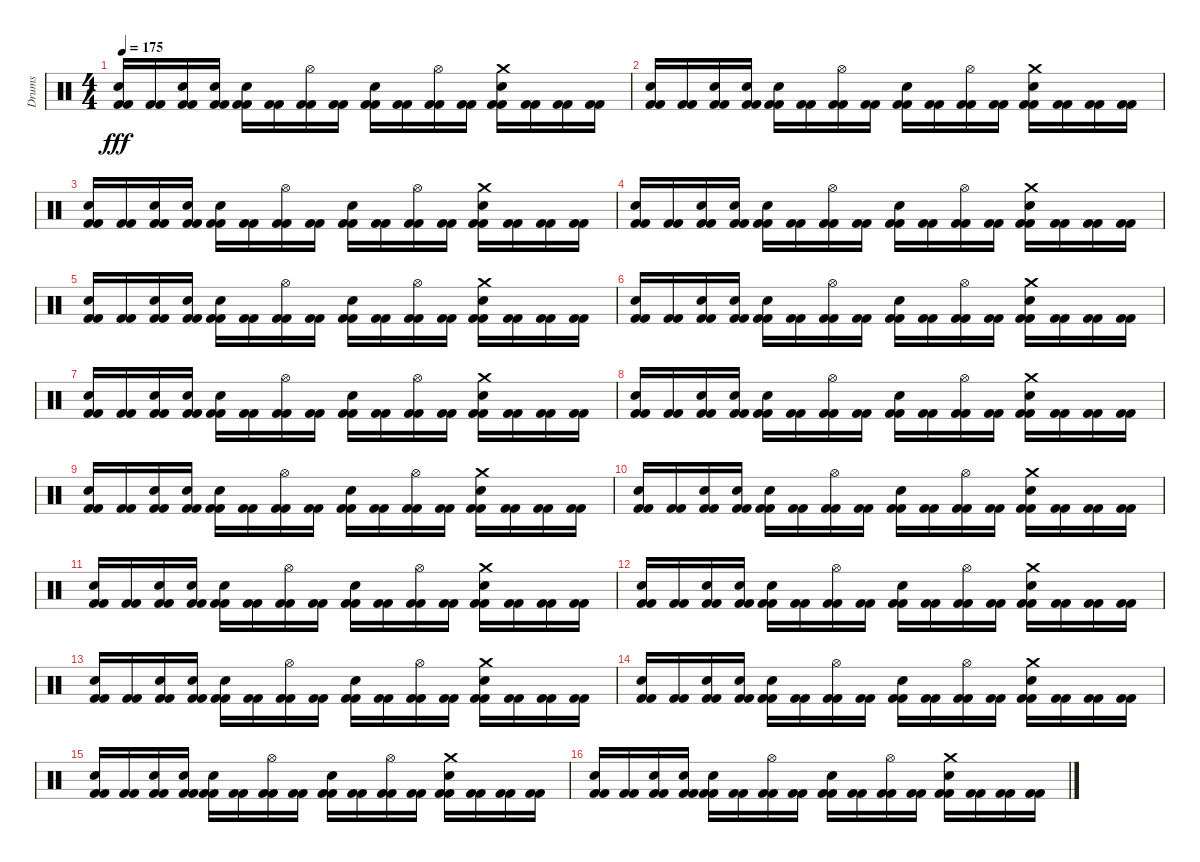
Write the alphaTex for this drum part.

\track ("Drums" "Drums") {instrument percussion}
\staff {score}
\articulation defaults
\ts (4 4)
\tempo 175
\clef neutral
\ks c
("Electric Snare (hit)" "Kick (hit) 2" "Kick (hit) 2").16{dy fff} ("Kick (hit) 2" "Kick (hit) 2").16 ("Electric Snare (hit)" "Kick (hit) 2" "Kick (hit) 2").16 ("Electric Snare (hit)" "Kick (hit) 2" "Kick (hit) 2").16 ("Electric Snare (hit)" "Kick (hit) 2" "Kick (hit) 2").16 ("Kick (hit) 2" "Kick (hit) 2").16 ("Hi-Hat (open)" "Kick (hit) 2" "Kick (hit) 2").16 ("Kick (hit) 2" "Kick (hit) 2").16 ("Electric Snare (hit)" "Kick (hit) 2" "Kick (hit) 2").16 ("Kick (hit) 2" "Kick (hit) 2").16 ("Hi-Hat (open)" "Kick (hit) 2" "Kick (hit) 2").16 ("Kick (hit) 2" "Kick (hit) 2").16 ("Crash medium (hit)" "Electric Snare (hit)" "Kick (hit) 2" "Kick (hit) 2").16 ("Kick (hit) 2" "Kick (hit) 2").16 ("Kick (hit) 2" "Kick (hit) 2").16 ("Kick (hit) 2" "Kick (hit) 2").16 |
("Electric Snare (hit)" "Kick (hit) 2" "Kick (hit) 2").16 ("Kick (hit) 2" "Kick (hit) 2").16 ("Electric Snare (hit)" "Kick (hit) 2" "Kick (hit) 2").16 ("Electric Snare (hit)" "Kick (hit) 2" "Kick (hit) 2").16 ("Electric Snare (hit)" "Kick (hit) 2" "Kick (hit) 2").16 ("Kick (hit) 2" "Kick (hit) 2").16 ("Hi-Hat (open)" "Kick (hit) 2" "Kick (hit) 2").16 ("Kick (hit) 2" "Kick (hit) 2").16 ("Electric Snare (hit)" "Kick (hit) 2" "Kick (hit) 2").16 ("Kick (hit) 2" "Kick (hit) 2").16 ("Hi-Hat (open)" "Kick (hit) 2" "Kick (hit) 2").16 ("Kick (hit) 2" "Kick (hit) 2").16 ("Crash medium (hit)" "Electric Snare (hit)" "Kick (hit) 2" "Kick (hit) 2").16 ("Kick (hit) 2" "Kick (hit) 2").16 ("Kick (hit) 2" "Kick (hit) 2").16 ("Kick (hit) 2" "Kick (hit) 2").16 |
("Electric Snare (hit)" "Kick (hit) 2" "Kick (hit) 2").16 ("Kick (hit) 2" "Kick (hit) 2").16 ("Electric Snare (hit)" "Kick (hit) 2" "Kick (hit) 2").16 ("Electric Snare (hit)" "Kick (hit) 2" "Kick (hit) 2").16 ("Electric Snare (hit)" "Kick (hit) 2" "Kick (hit) 2").16 ("Kick (hit) 2" "Kick (hit) 2").16 ("Hi-Hat (open)" "Kick (hit) 2" "Kick (hit) 2").16 ("Kick (hit) 2" "Kick (hit) 2").16 ("Electric Snare (hit)" "Kick (hit) 2" "Kick (hit) 2").16 ("Kick (hit) 2" "Kick (hit) 2").16 ("Hi-Hat (open)" "Kick (hit) 2" "Kick (hit) 2").16 ("Kick (hit) 2" "Kick (hit) 2").16 ("Crash medium (hit)" "Electric Snare (hit)" "Kick (hit) 2" "Kick (hit) 2").16 ("Kick (hit) 2" "Kick (hit) 2").16 ("Kick (hit) 2" "Kick (hit) 2").16 ("Kick (hit) 2" "Kick (hit) 2").16 |
("Electric Snare (hit)" "Kick (hit) 2" "Kick (hit) 2").16 ("Kick (hit) 2" "Kick (hit) 2").16 ("Electric Snare (hit)" "Kick (hit) 2" "Kick (hit) 2").16 ("Electric Snare (hit)" "Kick (hit) 2" "Kick (hit) 2").16 ("Electric Snare (hit)" "Kick (hit) 2" "Kick (hit) 2").16 ("Kick (hit) 2" "Kick (hit) 2").16 ("Hi-Hat (open)" "Kick (hit) 2" "Kick (hit) 2").16 ("Kick (hit) 2" "Kick (hit) 2").16 ("Electric Snare (hit)" "Kick (hit) 2" "Kick (hit) 2").16 ("Kick (hit) 2" "Kick (hit) 2").16 ("Hi-Hat (open)" "Kick (hit) 2" "Kick (hit) 2").16 ("Kick (hit) 2" "Kick (hit) 2").16 ("Crash medium (hit)" "Electric Snare (hit)" "Kick (hit) 2" "Kick (hit) 2").16 ("Kick (hit) 2" "Kick (hit) 2").16 ("Kick (hit) 2" "Kick (hit) 2").16 ("Kick (hit) 2" "Kick (hit) 2").16 |
("Electric Snare (hit)" "Kick (hit) 2" "Kick (hit) 2").16 ("Kick (hit) 2" "Kick (hit) 2").16 ("Electric Snare (hit)" "Kick (hit) 2" "Kick (hit) 2").16 ("Electric Snare (hit)" "Kick (hit) 2" "Kick (hit) 2").16 ("Electric Snare (hit)" "Kick (hit) 2" "Kick (hit) 2").16 ("Kick (hit) 2" "Kick (hit) 2").16 ("Hi-Hat (open)" "Kick (hit) 2" "Kick (hit) 2").16 ("Kick (hit) 2" "Kick (hit) 2").16 ("Electric Snare (hit)" "Kick (hit) 2" "Kick (hit) 2").16 ("Kick (hit) 2" "Kick (hit) 2").16 ("Hi-Hat (open)" "Kick (hit) 2" "Kick (hit) 2").16 ("Kick (hit) 2" "Kick (hit) 2").16 ("Crash medium (hit)" "Electric Snare (hit)" "Kick (hit) 2" "Kick (hit) 2").16 ("Kick (hit) 2" "Kick (hit) 2").16 ("Kick (hit) 2" "Kick (hit) 2").16 ("Kick (hit) 2" "Kick (hit) 2").16 |
("Electric Snare (hit)" "Kick (hit) 2" "Kick (hit) 2").16 ("Kick (hit) 2" "Kick (hit) 2").16 ("Electric Snare (hit)" "Kick (hit) 2" "Kick (hit) 2").16 ("Electric Snare (hit)" "Kick (hit) 2" "Kick (hit) 2").16 ("Electric Snare (hit)" "Kick (hit) 2" "Kick (hit) 2").16 ("Kick (hit) 2" "Kick (hit) 2").16 ("Hi-Hat (open)" "Kick (hit) 2" "Kick (hit) 2").16 ("Kick (hit) 2" "Kick (hit) 2").16 ("Electric Snare (hit)" "Kick (hit) 2" "Kick (hit) 2").16 ("Kick (hit) 2" "Kick (hit) 2").16 ("Hi-Hat (open)" "Kick (hit) 2" "Kick (hit) 2").16 ("Kick (hit) 2" "Kick (hit) 2").16 ("Crash medium (hit)" "Electric Snare (hit)" "Kick (hit) 2" "Kick (hit) 2").16 ("Kick (hit) 2" "Kick (hit) 2").16 ("Kick (hit) 2" "Kick (hit) 2").16 ("Kick (hit) 2" "Kick (hit) 2").16 |
("Electric Snare (hit)" "Kick (hit) 2" "Kick (hit) 2").16 ("Kick (hit) 2" "Kick (hit) 2").16 ("Electric Snare (hit)" "Kick (hit) 2" "Kick (hit) 2").16 ("Electric Snare (hit)" "Kick (hit) 2" "Kick (hit) 2").16 ("Electric Snare (hit)" "Kick (hit) 2" "Kick (hit) 2").16 ("Kick (hit) 2" "Kick (hit) 2").16 ("Hi-Hat (open)" "Kick (hit) 2" "Kick (hit) 2").16 ("Kick (hit) 2" "Kick (hit) 2").16 ("Electric Snare (hit)" "Kick (hit) 2" "Kick (hit) 2").16 ("Kick (hit) 2" "Kick (hit) 2").16 ("Hi-Hat (open)" "Kick (hit) 2" "Kick (hit) 2").16 ("Kick (hit) 2" "Kick (hit) 2").16 ("Crash medium (hit)" "Electric Snare (hit)" "Kick (hit) 2" "Kick (hit) 2").16 ("Kick (hit) 2" "Kick (hit) 2").16 ("Kick (hit) 2" "Kick (hit) 2").16 ("Kick (hit) 2" "Kick (hit) 2").16 |
("Electric Snare (hit)" "Kick (hit) 2" "Kick (hit) 2").16 ("Kick (hit) 2" "Kick (hit) 2").16 ("Electric Snare (hit)" "Kick (hit) 2" "Kick (hit) 2").16 ("Electric Snare (hit)" "Kick (hit) 2" "Kick (hit) 2").16 ("Electric Snare (hit)" "Kick (hit) 2" "Kick (hit) 2").16 ("Kick (hit) 2" "Kick (hit) 2").16 ("Hi-Hat (open)" "Kick (hit) 2" "Kick (hit) 2").16 ("Kick (hit) 2" "Kick (hit) 2").16 ("Electric Snare (hit)" "Kick (hit) 2" "Kick (hit) 2").16 ("Kick (hit) 2" "Kick (hit) 2").16 ("Hi-Hat (open)" "Kick (hit) 2" "Kick (hit) 2").16 ("Kick (hit) 2" "Kick (hit) 2").16 ("Crash medium (hit)" "Electric Snare (hit)" "Kick (hit) 2" "Kick (hit) 2").16 ("Kick (hit) 2" "Kick (hit) 2").16 ("Kick (hit) 2" "Kick (hit) 2").16 ("Kick (hit) 2" "Kick (hit) 2").16 |
("Electric Snare (hit)" "Kick (hit) 2" "Kick (hit) 2").16 ("Kick (hit) 2" "Kick (hit) 2").16 ("Electric Snare (hit)" "Kick (hit) 2" "Kick (hit) 2").16 ("Electric Snare (hit)" "Kick (hit) 2" "Kick (hit) 2").16 ("Electric Snare (hit)" "Kick (hit) 2" "Kick (hit) 2").16 ("Kick (hit) 2" "Kick (hit) 2").16 ("Hi-Hat (open)" "Kick (hit) 2" "Kick (hit) 2").16 ("Kick (hit) 2" "Kick (hit) 2").16 ("Electric Snare (hit)" "Kick (hit) 2" "Kick (hit) 2").16 ("Kick (hit) 2" "Kick (hit) 2").16 ("Hi-Hat (open)" "Kick (hit) 2" "Kick (hit) 2").16 ("Kick (hit) 2" "Kick (hit) 2").16 ("Crash medium (hit)" "Electric Snare (hit)" "Kick (hit) 2" "Kick (hit) 2").16 ("Kick (hit) 2" "Kick (hit) 2").16 ("Kick (hit) 2" "Kick (hit) 2").16 ("Kick (hit) 2" "Kick (hit) 2").16 |
("Electric Snare (hit)" "Kick (hit) 2" "Kick (hit) 2").16 ("Kick (hit) 2" "Kick (hit) 2").16 ("Electric Snare (hit)" "Kick (hit) 2" "Kick (hit) 2").16 ("Electric Snare (hit)" "Kick (hit) 2" "Kick (hit) 2").16 ("Electric Snare (hit)" "Kick (hit) 2" "Kick (hit) 2").16 ("Kick (hit) 2" "Kick (hit) 2").16 ("Hi-Hat (open)" "Kick (hit) 2" "Kick (hit) 2").16 ("Kick (hit) 2" "Kick (hit) 2").16 ("Electric Snare (hit)" "Kick (hit) 2" "Kick (hit) 2").16 ("Kick (hit) 2" "Kick (hit) 2").16 ("Hi-Hat (open)" "Kick (hit) 2" "Kick (hit) 2").16 ("Kick (hit) 2" "Kick (hit) 2").16 ("Crash medium (hit)" "Electric Snare (hit)" "Kick (hit) 2" "Kick (hit) 2").16 ("Kick (hit) 2" "Kick (hit) 2").16 ("Kick (hit) 2" "Kick (hit) 2").16 ("Kick (hit) 2" "Kick (hit) 2").16 |
("Electric Snare (hit)" "Kick (hit) 2" "Kick (hit) 2").16 ("Kick (hit) 2" "Kick (hit) 2").16 ("Electric Snare (hit)" "Kick (hit) 2" "Kick (hit) 2").16 ("Electric Snare (hit)" "Kick (hit) 2" "Kick (hit) 2").16 ("Electric Snare (hit)" "Kick (hit) 2" "Kick (hit) 2").16 ("Kick (hit) 2" "Kick (hit) 2").16 ("Hi-Hat (open)" "Kick (hit) 2" "Kick (hit) 2").16 ("Kick (hit) 2" "Kick (hit) 2").16 ("Electric Snare (hit)" "Kick (hit) 2" "Kick (hit) 2").16 ("Kick (hit) 2" "Kick (hit) 2").16 ("Hi-Hat (open)" "Kick (hit) 2" "Kick (hit) 2").16 ("Kick (hit) 2" "Kick (hit) 2").16 ("Crash medium (hit)" "Electric Snare (hit)" "Kick (hit) 2" "Kick (hit) 2").16 ("Kick (hit) 2" "Kick (hit) 2").16 ("Kick (hit) 2" "Kick (hit) 2").16 ("Kick (hit) 2" "Kick (hit) 2").16 |
("Electric Snare (hit)" "Kick (hit) 2" "Kick (hit) 2").16 ("Kick (hit) 2" "Kick (hit) 2").16 ("Electric Snare (hit)" "Kick (hit) 2" "Kick (hit) 2").16 ("Electric Snare (hit)" "Kick (hit) 2" "Kick (hit) 2").16 ("Electric Snare (hit)" "Kick (hit) 2" "Kick (hit) 2").16 ("Kick (hit) 2" "Kick (hit) 2").16 ("Hi-Hat (open)" "Kick (hit) 2" "Kick (hit) 2").16 ("Kick (hit) 2" "Kick (hit) 2").16 ("Electric Snare (hit)" "Kick (hit) 2" "Kick (hit) 2").16 ("Kick (hit) 2" "Kick (hit) 2").16 ("Hi-Hat (open)" "Kick (hit) 2" "Kick (hit) 2").16 ("Kick (hit) 2" "Kick (hit) 2").16 ("Crash medium (hit)" "Electric Snare (hit)" "Kick (hit) 2" "Kick (hit) 2").16 ("Kick (hit) 2" "Kick (hit) 2").16 ("Kick (hit) 2" "Kick (hit) 2").16 ("Kick (hit) 2" "Kick (hit) 2").16 |
("Electric Snare (hit)" "Kick (hit) 2" "Kick (hit) 2").16 ("Kick (hit) 2" "Kick (hit) 2").16 ("Electric Snare (hit)" "Kick (hit) 2" "Kick (hit) 2").16 ("Electric Snare (hit)" "Kick (hit) 2" "Kick (hit) 2").16 ("Electric Snare (hit)" "Kick (hit) 2" "Kick (hit) 2").16 ("Kick (hit) 2" "Kick (hit) 2").16 ("Hi-Hat (open)" "Kick (hit) 2" "Kick (hit) 2").16 ("Kick (hit) 2" "Kick (hit) 2").16 ("Electric Snare (hit)" "Kick (hit) 2" "Kick (hit) 2").16 ("Kick (hit) 2" "Kick (hit) 2").16 ("Hi-Hat (open)" "Kick (hit) 2" "Kick (hit) 2").16 ("Kick (hit) 2" "Kick (hit) 2").16 ("Crash medium (hit)" "Electric Snare (hit)" "Kick (hit) 2" "Kick (hit) 2").16 ("Kick (hit) 2" "Kick (hit) 2").16 ("Kick (hit) 2" "Kick (hit) 2").16 ("Kick (hit) 2" "Kick (hit) 2").16 |
("Electric Snare (hit)" "Kick (hit) 2" "Kick (hit) 2").16 ("Kick (hit) 2" "Kick (hit) 2").16 ("Electric Snare (hit)" "Kick (hit) 2" "Kick (hit) 2").16 ("Electric Snare (hit)" "Kick (hit) 2" "Kick (hit) 2").16 ("Electric Snare (hit)" "Kick (hit) 2" "Kick (hit) 2").16 ("Kick (hit) 2" "Kick (hit) 2").16 ("Hi-Hat (open)" "Kick (hit) 2" "Kick (hit) 2").16 ("Kick (hit) 2" "Kick (hit) 2").16 ("Electric Snare (hit)" "Kick (hit) 2" "Kick (hit) 2").16 ("Kick (hit) 2" "Kick (hit) 2").16 ("Hi-Hat (open)" "Kick (hit) 2" "Kick (hit) 2").16 ("Kick (hit) 2" "Kick (hit) 2").16 ("Crash medium (hit)" "Electric Snare (hit)" "Kick (hit) 2" "Kick (hit) 2").16 ("Kick (hit) 2" "Kick (hit) 2").16 ("Kick (hit) 2" "Kick (hit) 2").16 ("Kick (hit) 2" "Kick (hit) 2").16 |
("Electric Snare (hit)" "Kick (hit) 2" "Kick (hit) 2").16 ("Kick (hit) 2" "Kick (hit) 2").16 ("Electric Snare (hit)" "Kick (hit) 2" "Kick (hit) 2").16 ("Electric Snare (hit)" "Kick (hit) 2" "Kick (hit) 2").16 ("Electric Snare (hit)" "Kick (hit) 2" "Kick (hit) 2").16 ("Kick (hit) 2" "Kick (hit) 2").16 ("Hi-Hat (open)" "Kick (hit) 2" "Kick (hit) 2").16 ("Kick (hit) 2" "Kick (hit) 2").16 ("Electric Snare (hit)" "Kick (hit) 2" "Kick (hit) 2").16 ("Kick (hit) 2" "Kick (hit) 2").16 ("Hi-Hat (open)" "Kick (hit) 2" "Kick (hit) 2").16 ("Kick (hit) 2" "Kick (hit) 2").16 ("Crash medium (hit)" "Electric Snare (hit)" "Kick (hit) 2" "Kick (hit) 2").16 ("Kick (hit) 2" "Kick (hit) 2").16 ("Kick (hit) 2" "Kick (hit) 2").16 ("Kick (hit) 2" "Kick (hit) 2").16 |
("Electric Snare (hit)" "Kick (hit) 2" "Kick (hit) 2").16 ("Kick (hit) 2" "Kick (hit) 2").16 ("Electric Snare (hit)" "Kick (hit) 2" "Kick (hit) 2").16 ("Electric Snare (hit)" "Kick (hit) 2" "Kick (hit) 2").16 ("Electric Snare (hit)" "Kick (hit) 2" "Kick (hit) 2").16 ("Kick (hit) 2" "Kick (hit) 2").16 ("Hi-Hat (open)" "Kick (hit) 2" "Kick (hit) 2").16 ("Kick (hit) 2" "Kick (hit) 2").16 ("Electric Snare (hit)" "Kick (hit) 2" "Kick (hit) 2").16 ("Kick (hit) 2" "Kick (hit) 2").16 ("Hi-Hat (open)" "Kick (hit) 2" "Kick (hit) 2").16 ("Kick (hit) 2" "Kick (hit) 2").16 ("Crash medium (hit)" "Electric Snare (hit)" "Kick (hit) 2" "Kick (hit) 2").16 ("Kick (hit) 2" "Kick (hit) 2").16 ("Kick (hit) 2" "Kick (hit) 2").16 ("Kick (hit) 2" "Kick (hit) 2").16
